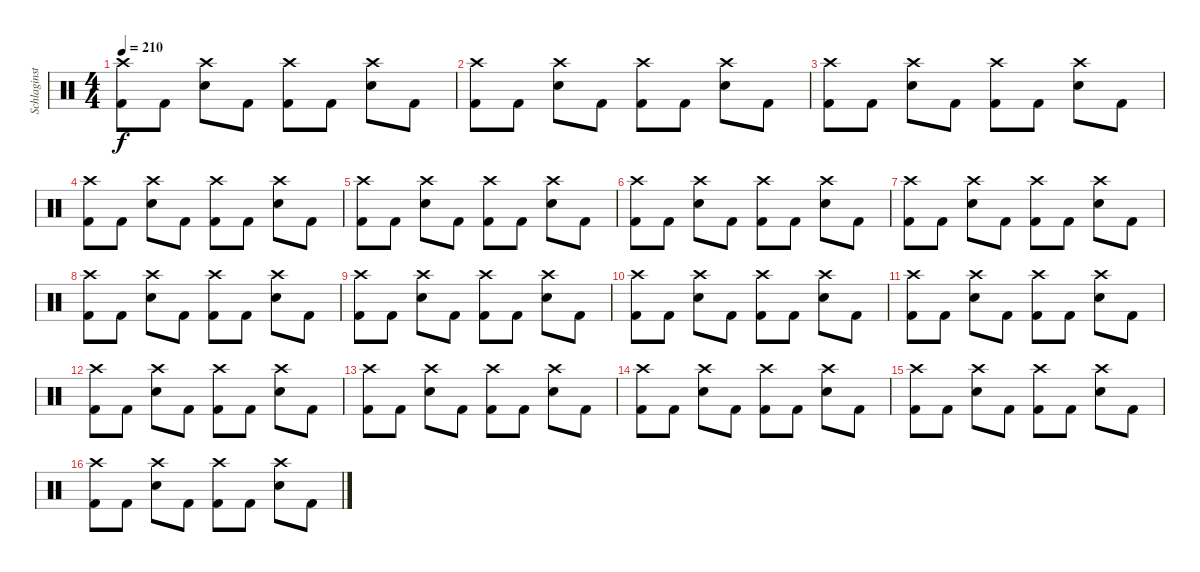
\track ("Schlaginstrumente - Auswahl" "Schlaginst") {instrument percussion}
\staff {score}
\articulation defaults
\ts (4 4)
\tempo 210
\clef neutral
\ks c
("Crash high (hit)" "Kick (hit) 2").8{dy f} "Kick (hit) 2".8 ("Crash high (hit)" "Snare (hit) 2").8 "Kick (hit) 2".8 ("Crash high (hit)" "Kick (hit) 2").8 "Kick (hit) 2".8 ("Crash high (hit)" "Snare (hit) 2").8 "Kick (hit) 2".8 |
("Crash high (hit)" "Kick (hit) 2").8 "Kick (hit) 2".8 ("Crash high (hit)" "Snare (hit) 2").8 "Kick (hit) 2".8 ("Crash high (hit)" "Kick (hit) 2").8 "Kick (hit) 2".8 ("Crash high (hit)" "Snare (hit) 2").8 "Kick (hit) 2".8 |
("Crash high (hit)" "Kick (hit) 2").8 "Kick (hit) 2".8 ("Crash high (hit)" "Snare (hit) 2").8 "Kick (hit) 2".8 ("Crash high (hit)" "Kick (hit) 2").8 "Kick (hit) 2".8 ("Crash high (hit)" "Snare (hit) 2").8 "Kick (hit) 2".8 |
("Crash high (hit)" "Kick (hit) 2").8 "Kick (hit) 2".8 ("Crash high (hit)" "Snare (hit) 2").8 "Kick (hit) 2".8 ("Crash high (hit)" "Kick (hit) 2").8 "Kick (hit) 2".8 ("Crash high (hit)" "Snare (hit) 2").8 "Kick (hit) 2".8 |
("Crash high (hit)" "Kick (hit) 2").8 "Kick (hit) 2".8 ("Crash high (hit)" "Snare (hit) 2").8 "Kick (hit) 2".8 ("Crash high (hit)" "Kick (hit) 2").8 "Kick (hit) 2".8 ("Crash high (hit)" "Snare (hit) 2").8 "Kick (hit) 2".8 |
("Crash high (hit)" "Kick (hit) 2").8 "Kick (hit) 2".8 ("Crash high (hit)" "Snare (hit) 2").8 "Kick (hit) 2".8 ("Crash high (hit)" "Kick (hit) 2").8 "Kick (hit) 2".8 ("Crash high (hit)" "Snare (hit) 2").8 "Kick (hit) 2".8 |
("Crash high (hit)" "Kick (hit) 2").8 "Kick (hit) 2".8 ("Crash high (hit)" "Snare (hit) 2").8 "Kick (hit) 2".8 ("Crash high (hit)" "Kick (hit) 2").8 "Kick (hit) 2".8 ("Crash high (hit)" "Snare (hit) 2").8 "Kick (hit) 2".8 |
("Crash high (hit)" "Kick (hit) 2").8 "Kick (hit) 2".8 ("Crash high (hit)" "Snare (hit) 2").8 "Kick (hit) 2".8 ("Crash high (hit)" "Kick (hit) 2").8 "Kick (hit) 2".8 ("Crash high (hit)" "Snare (hit) 2").8 "Kick (hit) 2".8 |
("Crash high (hit)" "Kick (hit) 2").8 "Kick (hit) 2".8 ("Crash high (hit)" "Snare (hit) 2").8 "Kick (hit) 2".8 ("Crash high (hit)" "Kick (hit) 2").8 "Kick (hit) 2".8 ("Crash high (hit)" "Snare (hit) 2").8 "Kick (hit) 2".8 |
("Crash high (hit)" "Kick (hit) 2").8 "Kick (hit) 2".8 ("Crash high (hit)" "Snare (hit) 2").8 "Kick (hit) 2".8 ("Crash high (hit)" "Kick (hit) 2").8 "Kick (hit) 2".8 ("Crash high (hit)" "Snare (hit) 2").8 "Kick (hit) 2".8 |
("Crash high (hit)" "Kick (hit) 2").8 "Kick (hit) 2".8 ("Crash high (hit)" "Snare (hit) 2").8 "Kick (hit) 2".8 ("Crash high (hit)" "Kick (hit) 2").8 "Kick (hit) 2".8 ("Crash high (hit)" "Snare (hit) 2").8 "Kick (hit) 2".8 |
("Crash high (hit)" "Kick (hit) 2").8 "Kick (hit) 2".8 ("Crash high (hit)" "Snare (hit) 2").8 "Kick (hit) 2".8 ("Crash high (hit)" "Kick (hit) 2").8 "Kick (hit) 2".8 ("Crash high (hit)" "Snare (hit) 2").8 "Kick (hit) 2".8 |
("Crash high (hit)" "Kick (hit) 2").8 "Kick (hit) 2".8 ("Crash high (hit)" "Snare (hit) 2").8 "Kick (hit) 2".8 ("Crash high (hit)" "Kick (hit) 2").8 "Kick (hit) 2".8 ("Crash high (hit)" "Snare (hit) 2").8 "Kick (hit) 2".8 |
("Crash high (hit)" "Kick (hit) 2").8 "Kick (hit) 2".8 ("Crash high (hit)" "Snare (hit) 2").8 "Kick (hit) 2".8 ("Crash high (hit)" "Kick (hit) 2").8 "Kick (hit) 2".8 ("Crash high (hit)" "Snare (hit) 2").8 "Kick (hit) 2".8 |
("Crash high (hit)" "Kick (hit) 2").8 "Kick (hit) 2".8 ("Crash high (hit)" "Snare (hit) 2").8 "Kick (hit) 2".8 ("Crash high (hit)" "Kick (hit) 2").8 "Kick (hit) 2".8 ("Crash high (hit)" "Snare (hit) 2").8 "Kick (hit) 2".8 |
("Crash high (hit)" "Kick (hit) 2").8 "Kick (hit) 2".8 ("Crash high (hit)" "Snare (hit) 2").8 "Kick (hit) 2".8 ("Crash high (hit)" "Kick (hit) 2").8 "Kick (hit) 2".8 ("Crash high (hit)" "Snare (hit) 2").8 "Kick (hit) 2".8
